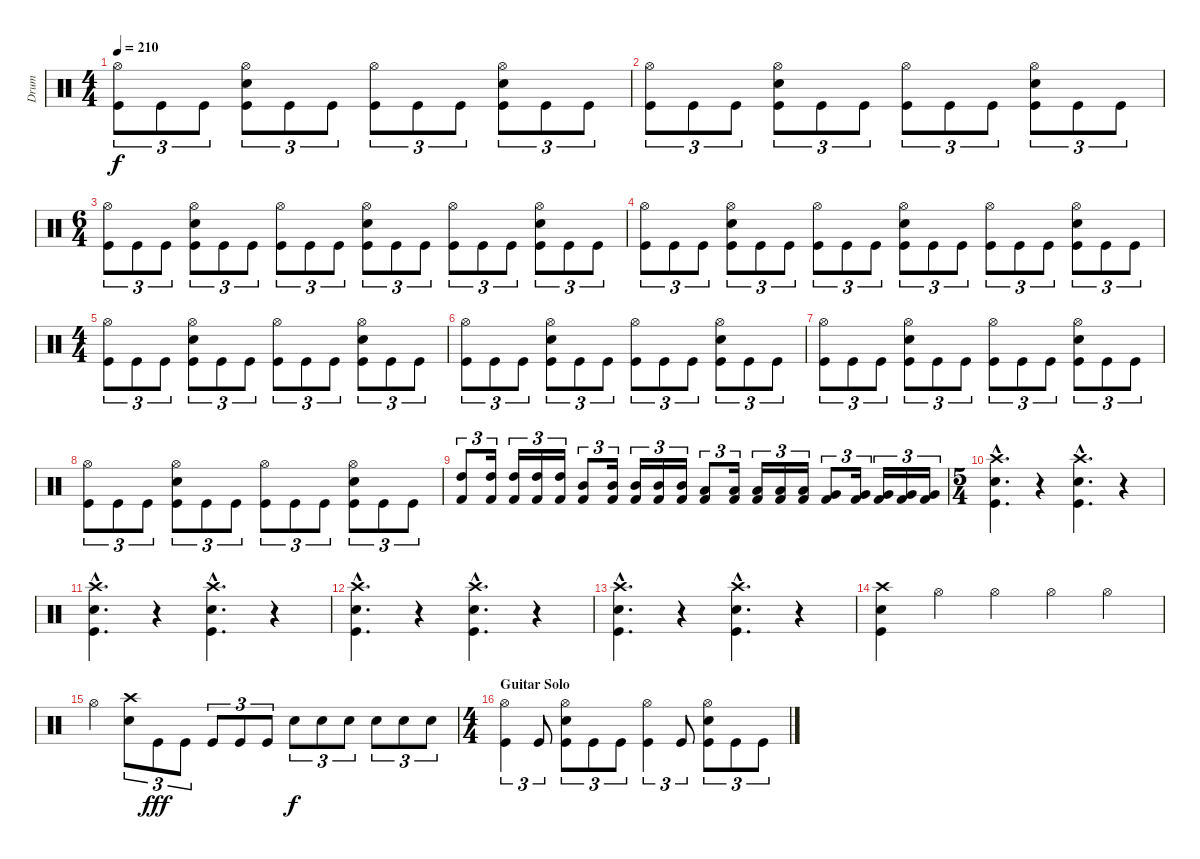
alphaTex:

\track ("Drum" "Drum") {instrument percussion}
\staff {score}
\articulation defaults
\ts (4 4)
\tempo 210
\clef neutral
\ks c
("Hi-Hat (open)" "Kick (hit)").8{tu (3 2) dy f} "Kick (hit)".8{tu (3 2)} "Kick (hit)".8{tu (3 2)} ("Hi-Hat (open)" "Snare (hit) 2" "Kick (hit)").8{tu (3 2)} "Kick (hit)".8{tu (3 2)} "Kick (hit)".8{tu (3 2)} ("Hi-Hat (open)" "Kick (hit)").8{tu (3 2)} "Kick (hit)".8{tu (3 2)} "Kick (hit)".8{tu (3 2)} ("Hi-Hat (open)" "Snare (hit) 2" "Kick (hit)").8{tu (3 2)} "Kick (hit)".8{tu (3 2)} "Kick (hit)".8{tu (3 2)} |
("Hi-Hat (open)" "Kick (hit)").8{tu (3 2)} "Kick (hit)".8{tu (3 2)} "Kick (hit)".8{tu (3 2)} ("Hi-Hat (open)" "Snare (hit) 2" "Kick (hit)").8{tu (3 2)} "Kick (hit)".8{tu (3 2)} "Kick (hit)".8{tu (3 2)} ("Hi-Hat (open)" "Kick (hit)").8{tu (3 2)} "Kick (hit)".8{tu (3 2)} "Kick (hit)".8{tu (3 2)} ("Hi-Hat (open)" "Snare (hit) 2" "Kick (hit)").8{tu (3 2)} "Kick (hit)".8{tu (3 2)} "Kick (hit)".8{tu (3 2)} |
\ts (6 4)
("Hi-Hat (open)" "Kick (hit)").8{tu (3 2)} "Kick (hit)".8{tu (3 2)} "Kick (hit)".8{tu (3 2)} ("Hi-Hat (open)" "Snare (hit) 2" "Kick (hit)").8{tu (3 2)} "Kick (hit)".8{tu (3 2)} "Kick (hit)".8{tu (3 2)} ("Hi-Hat (open)" "Kick (hit)").8{tu (3 2)} "Kick (hit)".8{tu (3 2)} "Kick (hit)".8{tu (3 2)} ("Hi-Hat (open)" "Snare (hit) 2" "Kick (hit)").8{tu (3 2)} "Kick (hit)".8{tu (3 2)} "Kick (hit)".8{tu (3 2)} ("Hi-Hat (open)" "Kick (hit)").8{tu (3 2)} "Kick (hit)".8{tu (3 2)} "Kick (hit)".8{tu (3 2)} ("Hi-Hat (open)" "Snare (hit) 2" "Kick (hit)").8{tu (3 2)} "Kick (hit)".8{tu (3 2)} "Kick (hit)".8{tu (3 2)} |
("Hi-Hat (open)" "Kick (hit)").8{tu (3 2)} "Kick (hit)".8{tu (3 2)} "Kick (hit)".8{tu (3 2)} ("Hi-Hat (open)" "Snare (hit) 2" "Kick (hit)").8{tu (3 2)} "Kick (hit)".8{tu (3 2)} "Kick (hit)".8{tu (3 2)} ("Hi-Hat (open)" "Kick (hit)").8{tu (3 2)} "Kick (hit)".8{tu (3 2)} "Kick (hit)".8{tu (3 2)} ("Hi-Hat (open)" "Snare (hit) 2" "Kick (hit)").8{tu (3 2)} "Kick (hit)".8{tu (3 2)} "Kick (hit)".8{tu (3 2)} ("Hi-Hat (open)" "Kick (hit)").8{tu (3 2)} "Kick (hit)".8{tu (3 2)} "Kick (hit)".8{tu (3 2)} ("Hi-Hat (open)" "Snare (hit) 2" "Kick (hit)").8{tu (3 2)} "Kick (hit)".8{tu (3 2)} "Kick (hit)".8{tu (3 2)} |
\ts (4 4)
("Hi-Hat (open)" "Kick (hit)").8{tu (3 2)} "Kick (hit)".8{tu (3 2)} "Kick (hit)".8{tu (3 2)} ("Hi-Hat (open)" "Snare (hit) 2" "Kick (hit)").8{tu (3 2)} "Kick (hit)".8{tu (3 2)} "Kick (hit)".8{tu (3 2)} ("Hi-Hat (open)" "Kick (hit)").8{tu (3 2)} "Kick (hit)".8{tu (3 2)} "Kick (hit)".8{tu (3 2)} ("Hi-Hat (open)" "Snare (hit) 2" "Kick (hit)").8{tu (3 2)} "Kick (hit)".8{tu (3 2)} "Kick (hit)".8{tu (3 2)} |
("Hi-Hat (open)" "Kick (hit)").8{tu (3 2)} "Kick (hit)".8{tu (3 2)} "Kick (hit)".8{tu (3 2)} ("Hi-Hat (open)" "Snare (hit) 2" "Kick (hit)").8{tu (3 2)} "Kick (hit)".8{tu (3 2)} "Kick (hit)".8{tu (3 2)} ("Hi-Hat (open)" "Kick (hit)").8{tu (3 2)} "Kick (hit)".8{tu (3 2)} "Kick (hit)".8{tu (3 2)} ("Hi-Hat (open)" "Snare (hit) 2" "Kick (hit)").8{tu (3 2)} "Kick (hit)".8{tu (3 2)} "Kick (hit)".8{tu (3 2)} |
("Hi-Hat (open)" "Kick (hit)").8{tu (3 2)} "Kick (hit)".8{tu (3 2)} "Kick (hit)".8{tu (3 2)} ("Hi-Hat (open)" "Snare (hit) 2" "Kick (hit)").8{tu (3 2)} "Kick (hit)".8{tu (3 2)} "Kick (hit)".8{tu (3 2)} ("Hi-Hat (open)" "Kick (hit)").8{tu (3 2)} "Kick (hit)".8{tu (3 2)} "Kick (hit)".8{tu (3 2)} ("Hi-Hat (open)" "Snare (hit) 2" "Kick (hit)").8{tu (3 2)} "Kick (hit)".8{tu (3 2)} "Kick (hit)".8{tu (3 2)} |
("Hi-Hat (open)" "Kick (hit)").8{tu (3 2)} "Kick (hit)".8{tu (3 2)} "Kick (hit)".8{tu (3 2)} ("Hi-Hat (open)" "Snare (hit) 2" "Kick (hit)").8{tu (3 2)} "Kick (hit)".8{tu (3 2)} "Kick (hit)".8{tu (3 2)} ("Hi-Hat (open)" "Kick (hit)").8{tu (3 2)} "Kick (hit)".8{tu (3 2)} "Kick (hit)".8{tu (3 2)} ("Hi-Hat (open)" "Snare (hit) 2" "Kick (hit)").8{tu (3 2)} "Kick (hit)".8{tu (3 2)} "Kick (hit)".8{tu (3 2)} |
("High Tom (hit)" "Kick (hit) 2").8{tu (3 2)} ("High Tom (hit)" "Kick (hit) 2").16{tu (3 2)} ("High Tom (hit)" "Kick (hit) 2").16{tu (3 2)} ("High Tom (hit)" "Kick (hit) 2").16{tu (3 2)} ("High Tom (hit)" "Kick (hit) 2").16{tu (3 2)} ("Mid Tom (hit)" "Kick (hit) 2").8{tu (3 2)} ("Mid Tom (hit)" "Kick (hit) 2").16{tu (3 2)} ("Mid Tom (hit)" "Kick (hit) 2").16{tu (3 2)} ("Mid Tom (hit)" "Kick (hit) 2").16{tu (3 2)} ("Mid Tom (hit)" "Kick (hit) 2").16{tu (3 2)} ("Low Tom (hit)" "Kick (hit) 2").8{tu (3 2)} ("Low Tom (hit)" "Kick (hit) 2").16{tu (3 2)} ("Low Tom (hit)" "Kick (hit) 2").16{tu (3 2)} ("Low Tom (hit)" "Kick (hit) 2").16{tu (3 2)} ("Low Tom (hit)" "Kick (hit) 2").16{tu (3 2)} ("Very Low Tom (hit)" "Kick (hit) 2").8{tu (3 2)} ("Very Low Tom (hit)" "Kick (hit) 2").16{tu (3 2)} ("Very Low Tom (hit)" "Kick (hit) 2").16{tu (3 2)} ("Very Low Tom (hit)" "Kick (hit) 2").16{tu (3 2)} ("Very Low Tom (hit)" "Kick (hit) 2").16{tu (3 2)} |
\ts (5 4)
("Snare (hit) 2"{hac} "Kick (hit)"{hac} "Crash high (hit)"{hac}).4{d} r.4 ("Kick (hit)"{hac} "Snare (hit) 2"{hac} "Crash high (hit)"{hac}).4{d} r.4 |
("Snare (hit) 2"{hac} "Kick (hit)"{hac} "Crash high (hit)"{hac}).4{d} r.4 ("Kick (hit)"{hac} "Snare (hit) 2"{hac} "Crash high (hit)"{hac}).4{d} r.4 |
("Snare (hit) 2"{hac} "Kick (hit)"{hac} "Crash high (hit)"{hac}).4{d} r.4 ("Kick (hit)"{hac} "Snare (hit) 2"{hac} "Crash high (hit)"{hac}).4{d} r.4 |
("Snare (hit) 2"{hac} "Kick (hit)"{hac} "Crash high (hit)"{hac}).4{d} r.4 ("Kick (hit)"{hac} "Snare (hit) 2"{hac} "Crash high (hit)"{hac}).4{d} r.4 |
("Crash high (hit)" "Snare (hit) 2" "Kick (hit)").4 "Hi-Hat (open)".4 "Hi-Hat (open)".4 "Hi-Hat (open)".4 "Hi-Hat (open)".4 |
"Hi-Hat (open)".4 ("Crash high (hit)" "Snare (hit) 2").8{tu (3 2)} "Kick (hit)".8{tu (3 2) dy fff} "Kick (hit)".8{tu (3 2)} "Kick (hit)".8{tu (3 2)} "Kick (hit)".8{tu (3 2)} "Kick (hit)".8{tu (3 2)} "Snare (hit) 2".8{tu (3 2) dy f} "Snare (hit) 2".8{tu (3 2)} "Snare (hit) 2".8{tu (3 2)} "Snare (hit) 2".8{tu (3 2)} "Snare (hit) 2".8{tu (3 2)} "Snare (hit) 2".8{tu (3 2)} |
\ts (4 4)
\section ("" "Guitar Solo")
("Hi-Hat (open)" "Kick (hit)").4{tu (3 2)} "Kick (hit)".8{tu (3 2)} ("Hi-Hat (open)" "Snare (hit) 2" "Kick (hit)").8{tu (3 2)} "Kick (hit)".8{tu (3 2)} "Kick (hit)".8{tu (3 2)} ("Hi-Hat (open)" "Kick (hit)").4{tu (3 2)} "Kick (hit)".8{tu (3 2)} ("Hi-Hat (open)" "Snare (hit) 2" "Kick (hit)").8{tu (3 2)} "Kick (hit)".8{tu (3 2)} "Kick (hit)".8{tu (3 2)}
